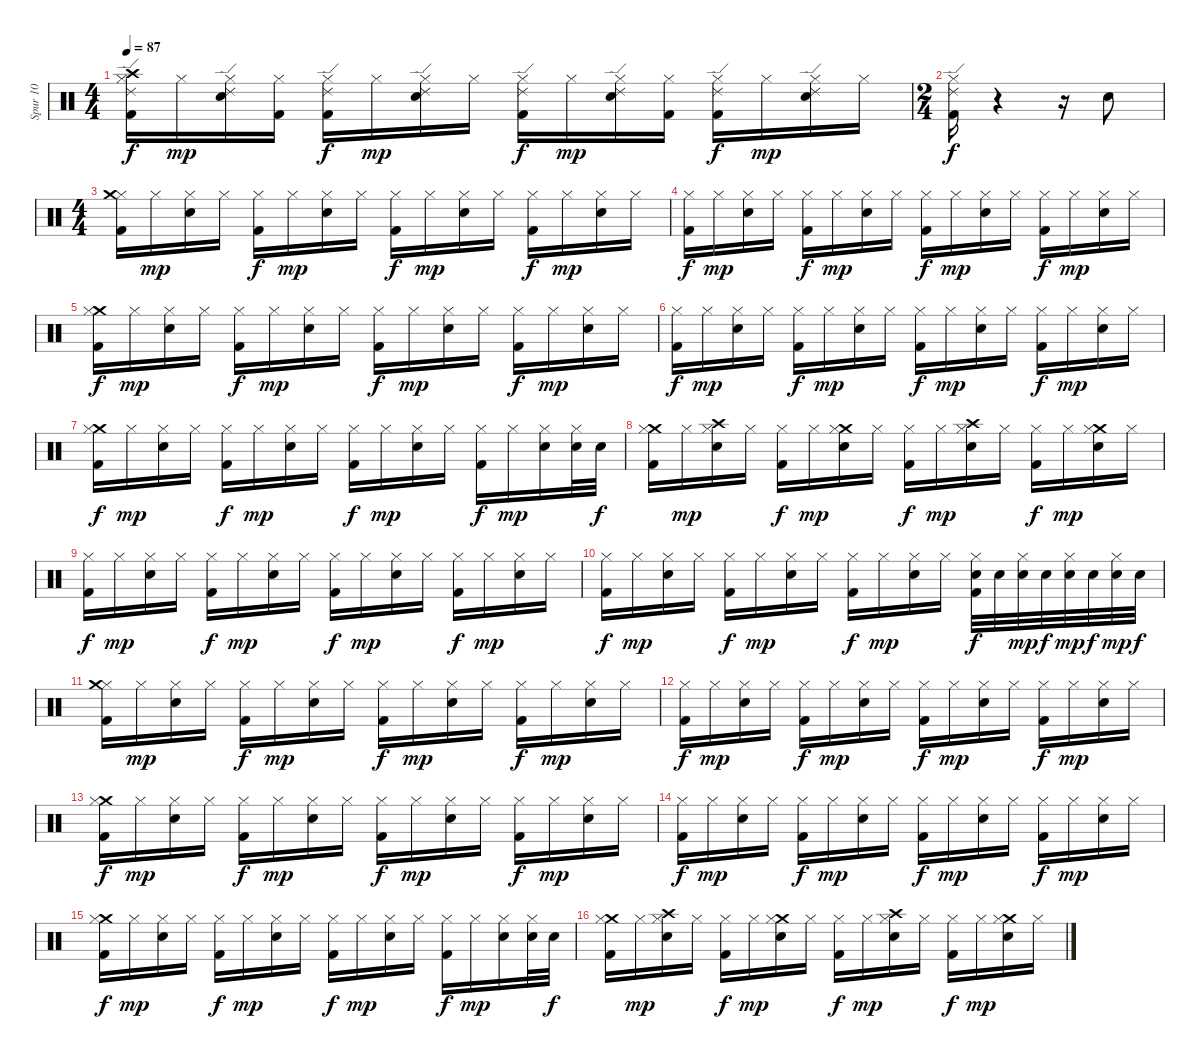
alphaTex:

\track ("Spur 10" "Spur 10") {instrument percussion}
\staff {score}
\articulation defaults
\ts (4 4)
\tempo 87
\clef neutral
\ks c
("Hi-Hat (closed)" "Crash high (hit)" "Ride (edge) 2" "Kick (hit) 2").16{dy f} "Hi-Hat (closed)".16{dy mp} ("Hi-Hat (closed)" "Ride (edge) 2" "Electric Snare (hit)").16 ("Kick (hit) 2" "Hi-Hat (closed)").16 ("Hi-Hat (closed)" "Ride (edge) 2" "Kick (hit) 2").16{dy f} "Hi-Hat (closed)".16{dy mp} ("Hi-Hat (closed)" "Electric Snare (hit)" "Ride (edge) 2").16 "Hi-Hat (closed)".16 ("Hi-Hat (closed)" "Ride (edge) 2" "Kick (hit) 2").16{dy f} "Hi-Hat (closed)".16{dy mp} ("Hi-Hat (closed)" "Ride (edge) 2" "Electric Snare (hit)").16 ("Kick (hit) 2" "Hi-Hat (closed)").16 ("Hi-Hat (closed)" "Ride (edge) 2" "Kick (hit) 2").16{dy f} "Hi-Hat (closed)".16{dy mp} ("Hi-Hat (closed)" "Ride (edge) 2" "Electric Snare (hit)").16 "Hi-Hat (closed)".16 |
\ts (2 4)
("Ride (edge) 2" "Hi-Hat (closed)" "Kick (hit) 2").16{dy f} r.4 r.16 "Electric Snare (hit)".8 |
\ts (4 4)
("Hi-Hat (closed)" "Crash medium (hit)" "Kick (hit) 2").16 "Hi-Hat (closed)".16{dy mp} ("Hi-Hat (closed)" "Electric Snare (hit)").16 "Hi-Hat (closed)".16 ("Hi-Hat (closed)" "Kick (hit) 2").16{dy f} "Hi-Hat (closed)".16{dy mp} ("Hi-Hat (closed)" "Electric Snare (hit)").16 "Hi-Hat (closed)".16 ("Hi-Hat (closed)" "Kick (hit) 2").16{dy f} "Hi-Hat (closed)".16{dy mp} ("Hi-Hat (closed)" "Electric Snare (hit)").16 "Hi-Hat (closed)".16 ("Hi-Hat (closed)" "Kick (hit) 2").16{dy f} "Hi-Hat (closed)".16{dy mp} ("Hi-Hat (closed)" "Electric Snare (hit)").16 "Hi-Hat (closed)".16 |
("Hi-Hat (closed)" "Kick (hit) 2").16{dy f} "Hi-Hat (closed)".16{dy mp} ("Hi-Hat (closed)" "Electric Snare (hit)").16 "Hi-Hat (closed)".16 ("Hi-Hat (closed)" "Kick (hit) 2").16{dy f} "Hi-Hat (closed)".16{dy mp} ("Hi-Hat (closed)" "Electric Snare (hit)").16 "Hi-Hat (closed)".16 ("Hi-Hat (closed)" "Kick (hit) 2").16{dy f} "Hi-Hat (closed)".16{dy mp} ("Hi-Hat (closed)" "Electric Snare (hit)").16 "Hi-Hat (closed)".16 ("Hi-Hat (closed)" "Kick (hit) 2").16{dy f} "Hi-Hat (closed)".16{dy mp} ("Hi-Hat (closed)" "Electric Snare (hit)").16 "Hi-Hat (closed)".16 |
("Crash medium (hit)" "Hi-Hat (closed)" "Kick (hit) 2").16{dy f} "Hi-Hat (closed)".16{dy mp} ("Hi-Hat (closed)" "Electric Snare (hit)").16 "Hi-Hat (closed)".16 ("Hi-Hat (closed)" "Kick (hit) 2").16{dy f} "Hi-Hat (closed)".16{dy mp} ("Hi-Hat (closed)" "Electric Snare (hit)").16 "Hi-Hat (closed)".16 ("Hi-Hat (closed)" "Kick (hit) 2").16{dy f} "Hi-Hat (closed)".16{dy mp} ("Hi-Hat (closed)" "Electric Snare (hit)").16 "Hi-Hat (closed)".16 ("Hi-Hat (closed)" "Kick (hit) 2").16{dy f} "Hi-Hat (closed)".16{dy mp} ("Hi-Hat (closed)" "Electric Snare (hit)").16 "Hi-Hat (closed)".16 |
("Hi-Hat (closed)" "Kick (hit) 2").16{dy f} "Hi-Hat (closed)".16{dy mp} ("Hi-Hat (closed)" "Electric Snare (hit)").16 "Hi-Hat (closed)".16 ("Hi-Hat (closed)" "Kick (hit) 2").16{dy f} "Hi-Hat (closed)".16{dy mp} ("Hi-Hat (closed)" "Electric Snare (hit)").16 "Hi-Hat (closed)".16 ("Hi-Hat (closed)" "Kick (hit) 2").16{dy f} "Hi-Hat (closed)".16{dy mp} ("Hi-Hat (closed)" "Electric Snare (hit)").16 "Hi-Hat (closed)".16 ("Hi-Hat (closed)" "Kick (hit) 2").16{dy f} "Hi-Hat (closed)".16{dy mp} ("Hi-Hat (closed)" "Electric Snare (hit)").16 "Hi-Hat (closed)".16 |
("Crash medium (hit)" "Hi-Hat (closed)" "Kick (hit) 2").16{dy f} "Hi-Hat (closed)".16{dy mp} ("Hi-Hat (closed)" "Electric Snare (hit)").16 "Hi-Hat (closed)".16 ("Hi-Hat (closed)" "Kick (hit) 2").16{dy f} "Hi-Hat (closed)".16{dy mp} ("Hi-Hat (closed)" "Electric Snare (hit)").16 "Hi-Hat (closed)".16 ("Hi-Hat (closed)" "Kick (hit) 2").16{dy f} "Hi-Hat (closed)".16{dy mp} ("Hi-Hat (closed)" "Electric Snare (hit)").16 "Hi-Hat (closed)".16 ("Hi-Hat (closed)" "Kick (hit) 2").16{dy f} "Hi-Hat (closed)".16{dy mp} ("Electric Snare (hit)" "Hi-Hat (closed)").16 ("Electric Snare (hit)" "Hi-Hat (closed)").32 "Electric Snare (hit)".32{dy f} |
("Crash medium (hit)" "Hi-Hat (closed)" "Kick (hit) 2").16 "Hi-Hat (closed)".16{dy mp} ("Crash high (hit)" "Hi-Hat (closed)" "Electric Snare (hit)").16 "Hi-Hat (closed)".16 ("Hi-Hat (closed)" "Kick (hit) 2").16{dy f} "Hi-Hat (closed)".16{dy mp} ("Crash medium (hit)" "Hi-Hat (closed)" "Electric Snare (hit)").16 "Hi-Hat (closed)".16 ("Hi-Hat (closed)" "Kick (hit) 2").16{dy f} "Hi-Hat (closed)".16{dy mp} ("Crash high (hit)" "Hi-Hat (closed)" "Electric Snare (hit)").16 "Hi-Hat (closed)".16 ("Hi-Hat (closed)" "Kick (hit) 2").16{dy f} "Hi-Hat (closed)".16{dy mp} ("Crash medium (hit)" "Hi-Hat (closed)" "Electric Snare (hit)").16 "Hi-Hat (closed)".16 |
("Hi-Hat (closed)" "Kick (hit) 2").16{dy f} "Hi-Hat (closed)".16{dy mp} ("Hi-Hat (closed)" "Electric Snare (hit)").16 "Hi-Hat (closed)".16 ("Hi-Hat (closed)" "Kick (hit) 2").16{dy f} "Hi-Hat (closed)".16{dy mp} ("Hi-Hat (closed)" "Electric Snare (hit)").16 "Hi-Hat (closed)".16 ("Hi-Hat (closed)" "Kick (hit) 2").16{dy f} "Hi-Hat (closed)".16{dy mp} ("Hi-Hat (closed)" "Electric Snare (hit)").16 "Hi-Hat (closed)".16 ("Hi-Hat (closed)" "Kick (hit) 2").16{dy f} "Hi-Hat (closed)".16{dy mp} ("Hi-Hat (closed)" "Electric Snare (hit)").16 "Hi-Hat (closed)".16 |
("Hi-Hat (closed)" "Kick (hit) 2").16{dy f} "Hi-Hat (closed)".16{dy mp} ("Hi-Hat (closed)" "Electric Snare (hit)").16 "Hi-Hat (closed)".16 ("Hi-Hat (closed)" "Kick (hit) 2").16{dy f} "Hi-Hat (closed)".16{dy mp} ("Hi-Hat (closed)" "Electric Snare (hit)").16 "Hi-Hat (closed)".16 ("Hi-Hat (closed)" "Kick (hit) 2").16{dy f} "Hi-Hat (closed)".16{dy mp} ("Hi-Hat (closed)" "Electric Snare (hit)").16 "Hi-Hat (closed)".16 ("Electric Snare (hit)" "Hi-Hat (closed)" "Kick (hit) 2").32{dy f} "Electric Snare (hit)".32 ("Electric Snare (hit)" "Hi-Hat (closed)").32{dy mp} "Electric Snare (hit)".32{dy f} ("Hi-Hat (closed)" "Electric Snare (hit)").32{dy mp} "Electric Snare (hit)".32{dy f} ("Electric Snare (hit)" "Hi-Hat (closed)").32{dy mp} "Electric Snare (hit)".32{dy f} |
("Hi-Hat (closed)" "Crash medium (hit)" "Kick (hit) 2").16 "Hi-Hat (closed)".16{dy mp} ("Hi-Hat (closed)" "Electric Snare (hit)").16 "Hi-Hat (closed)".16 ("Hi-Hat (closed)" "Kick (hit) 2").16{dy f} "Hi-Hat (closed)".16{dy mp} ("Hi-Hat (closed)" "Electric Snare (hit)").16 "Hi-Hat (closed)".16 ("Hi-Hat (closed)" "Kick (hit) 2").16{dy f} "Hi-Hat (closed)".16{dy mp} ("Hi-Hat (closed)" "Electric Snare (hit)").16 "Hi-Hat (closed)".16 ("Hi-Hat (closed)" "Kick (hit) 2").16{dy f} "Hi-Hat (closed)".16{dy mp} ("Hi-Hat (closed)" "Electric Snare (hit)").16 "Hi-Hat (closed)".16 |
("Hi-Hat (closed)" "Kick (hit) 2").16{dy f} "Hi-Hat (closed)".16{dy mp} ("Hi-Hat (closed)" "Electric Snare (hit)").16 "Hi-Hat (closed)".16 ("Hi-Hat (closed)" "Kick (hit) 2").16{dy f} "Hi-Hat (closed)".16{dy mp} ("Hi-Hat (closed)" "Electric Snare (hit)").16 "Hi-Hat (closed)".16 ("Hi-Hat (closed)" "Kick (hit) 2").16{dy f} "Hi-Hat (closed)".16{dy mp} ("Hi-Hat (closed)" "Electric Snare (hit)").16 "Hi-Hat (closed)".16 ("Hi-Hat (closed)" "Kick (hit) 2").16{dy f} "Hi-Hat (closed)".16{dy mp} ("Hi-Hat (closed)" "Electric Snare (hit)").16 "Hi-Hat (closed)".16 |
("Crash medium (hit)" "Hi-Hat (closed)" "Kick (hit) 2").16{dy f} "Hi-Hat (closed)".16{dy mp} ("Hi-Hat (closed)" "Electric Snare (hit)").16 "Hi-Hat (closed)".16 ("Hi-Hat (closed)" "Kick (hit) 2").16{dy f} "Hi-Hat (closed)".16{dy mp} ("Hi-Hat (closed)" "Electric Snare (hit)").16 "Hi-Hat (closed)".16 ("Hi-Hat (closed)" "Kick (hit) 2").16{dy f} "Hi-Hat (closed)".16{dy mp} ("Hi-Hat (closed)" "Electric Snare (hit)").16 "Hi-Hat (closed)".16 ("Hi-Hat (closed)" "Kick (hit) 2").16{dy f} "Hi-Hat (closed)".16{dy mp} ("Hi-Hat (closed)" "Electric Snare (hit)").16 "Hi-Hat (closed)".16 |
("Hi-Hat (closed)" "Kick (hit) 2").16{dy f} "Hi-Hat (closed)".16{dy mp} ("Hi-Hat (closed)" "Electric Snare (hit)").16 "Hi-Hat (closed)".16 ("Hi-Hat (closed)" "Kick (hit) 2").16{dy f} "Hi-Hat (closed)".16{dy mp} ("Hi-Hat (closed)" "Electric Snare (hit)").16 "Hi-Hat (closed)".16 ("Hi-Hat (closed)" "Kick (hit) 2").16{dy f} "Hi-Hat (closed)".16{dy mp} ("Hi-Hat (closed)" "Electric Snare (hit)").16 "Hi-Hat (closed)".16 ("Hi-Hat (closed)" "Kick (hit) 2").16{dy f} "Hi-Hat (closed)".16{dy mp} ("Hi-Hat (closed)" "Electric Snare (hit)").16 "Hi-Hat (closed)".16 |
("Crash medium (hit)" "Hi-Hat (closed)" "Kick (hit) 2").16{dy f} "Hi-Hat (closed)".16{dy mp} ("Hi-Hat (closed)" "Electric Snare (hit)").16 "Hi-Hat (closed)".16 ("Hi-Hat (closed)" "Kick (hit) 2").16{dy f} "Hi-Hat (closed)".16{dy mp} ("Hi-Hat (closed)" "Electric Snare (hit)").16 "Hi-Hat (closed)".16 ("Hi-Hat (closed)" "Kick (hit) 2").16{dy f} "Hi-Hat (closed)".16{dy mp} ("Hi-Hat (closed)" "Electric Snare (hit)").16 "Hi-Hat (closed)".16 ("Hi-Hat (closed)" "Kick (hit) 2").16{dy f} "Hi-Hat (closed)".16{dy mp} ("Electric Snare (hit)" "Hi-Hat (closed)").16 ("Electric Snare (hit)" "Hi-Hat (closed)").32 "Electric Snare (hit)".32{dy f} |
("Crash medium (hit)" "Hi-Hat (closed)" "Kick (hit) 2").16 "Hi-Hat (closed)".16{dy mp} ("Crash high (hit)" "Hi-Hat (closed)" "Electric Snare (hit)").16 "Hi-Hat (closed)".16 ("Hi-Hat (closed)" "Kick (hit) 2").16{dy f} "Hi-Hat (closed)".16{dy mp} ("Crash medium (hit)" "Hi-Hat (closed)" "Electric Snare (hit)").16 "Hi-Hat (closed)".16 ("Hi-Hat (closed)" "Kick (hit) 2").16{dy f} "Hi-Hat (closed)".16{dy mp} ("Crash high (hit)" "Hi-Hat (closed)" "Electric Snare (hit)").16 "Hi-Hat (closed)".16 ("Hi-Hat (closed)" "Kick (hit) 2").16{dy f} "Hi-Hat (closed)".16{dy mp} ("Crash medium (hit)" "Hi-Hat (closed)" "Electric Snare (hit)").16 "Hi-Hat (closed)".16
